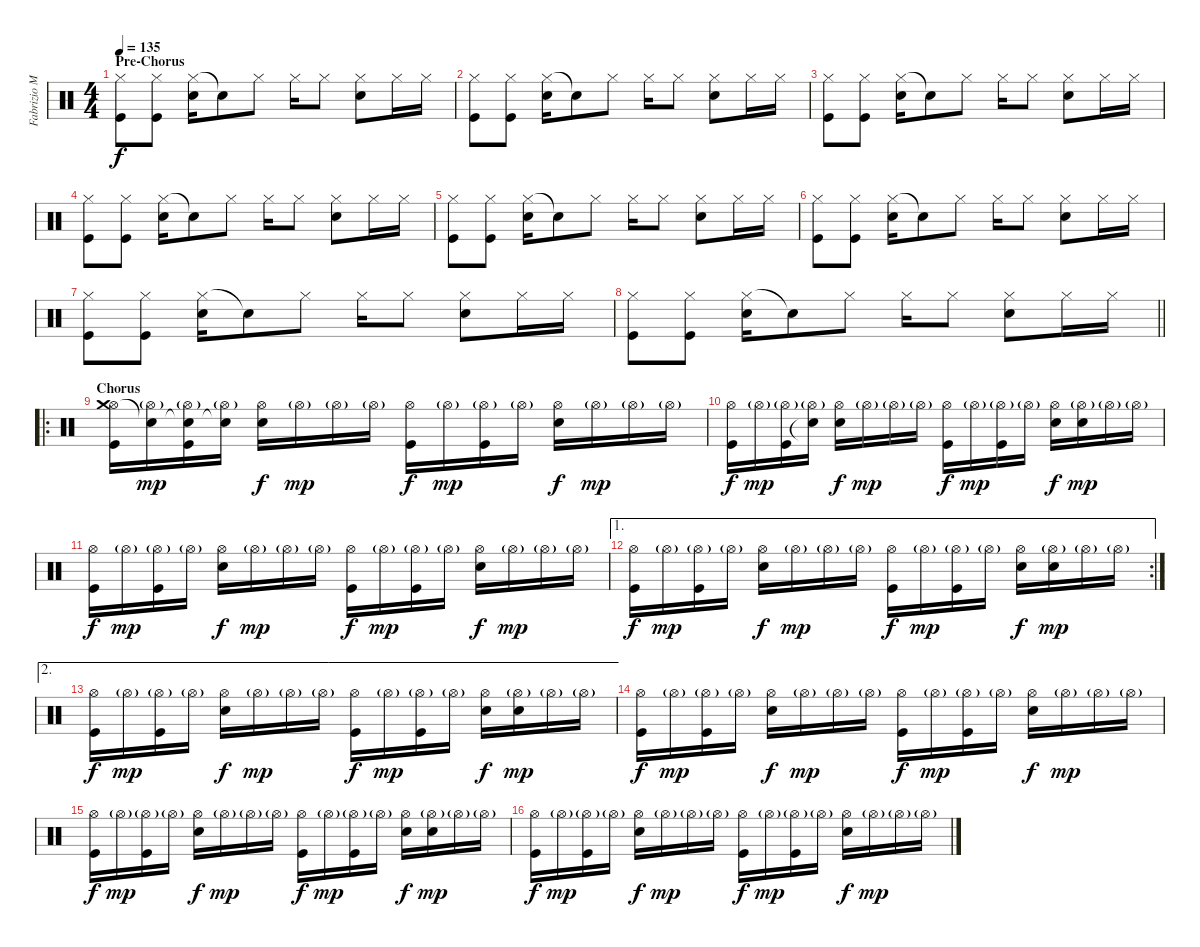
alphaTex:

\track ("Fabrizio Moretti" "Fabrizio M") {instrument percussion}
\staff {score}
\articulation defaults
\ts (4 4)
\section ("" "Pre-Chorus")
\tempo 135
\clef neutral
\ks c
("Hi-Hat (closed)" "Kick (hit)").8{dy f} ("Hi-Hat (closed)" "Kick (hit)").8 ("Hi-Hat (closed)" "Electric Snare (hit)").16 "Snare (hit)"{t}.8 "Hi-Hat (closed)".8 "Hi-Hat (closed)".16 "Hi-Hat (closed)".8 ("Hi-Hat (closed)" "Electric Snare (hit)").8 "Hi-Hat (closed)".16 "Hi-Hat (closed)".16 |
("Hi-Hat (closed)" "Kick (hit)").8 ("Hi-Hat (closed)" "Kick (hit)").8 ("Hi-Hat (closed)" "Electric Snare (hit)").16 "Snare (hit)"{t}.8 "Hi-Hat (closed)".8 "Hi-Hat (closed)".16 "Hi-Hat (closed)".8 ("Hi-Hat (closed)" "Electric Snare (hit)").8 "Hi-Hat (closed)".16 "Hi-Hat (closed)".16 |
("Hi-Hat (closed)" "Kick (hit)").8 ("Hi-Hat (closed)" "Kick (hit)").8 ("Hi-Hat (closed)" "Electric Snare (hit)").16 "Snare (hit)"{t}.8 "Hi-Hat (closed)".8 "Hi-Hat (closed)".16 "Hi-Hat (closed)".8 ("Hi-Hat (closed)" "Electric Snare (hit)").8 "Hi-Hat (closed)".16 "Hi-Hat (closed)".16 |
("Hi-Hat (closed)" "Kick (hit)").8 ("Hi-Hat (closed)" "Kick (hit)").8 ("Hi-Hat (closed)" "Electric Snare (hit)").16 "Snare (hit)"{t}.8 "Hi-Hat (closed)".8 "Hi-Hat (closed)".16 "Hi-Hat (closed)".8 ("Hi-Hat (closed)" "Electric Snare (hit)").8 "Hi-Hat (closed)".16 "Hi-Hat (closed)".16 |
("Hi-Hat (closed)" "Kick (hit)").8 ("Hi-Hat (closed)" "Kick (hit)").8 ("Hi-Hat (closed)" "Electric Snare (hit)").16 "Snare (hit)"{t}.8 "Hi-Hat (closed)".8 "Hi-Hat (closed)".16 "Hi-Hat (closed)".8 ("Hi-Hat (closed)" "Electric Snare (hit)").8 "Hi-Hat (closed)".16 "Hi-Hat (closed)".16 |
("Hi-Hat (closed)" "Kick (hit)").8 ("Hi-Hat (closed)" "Kick (hit)").8 ("Hi-Hat (closed)" "Electric Snare (hit)").16 "Snare (hit)"{t}.8 "Hi-Hat (closed)".8 "Hi-Hat (closed)".16 "Hi-Hat (closed)".8 ("Hi-Hat (closed)" "Electric Snare (hit)").8 "Hi-Hat (closed)".16 "Hi-Hat (closed)".16 |
("Hi-Hat (closed)" "Kick (hit)").8 ("Hi-Hat (closed)" "Kick (hit)").8 ("Hi-Hat (closed)" "Electric Snare (hit)").16 "Snare (hit)"{t}.8 "Hi-Hat (closed)".8 "Hi-Hat (closed)".16 "Hi-Hat (closed)".8 ("Hi-Hat (closed)" "Electric Snare (hit)").8 "Hi-Hat (closed)".16 "Hi-Hat (closed)".16 |
\barLineRight lightlight
("Hi-Hat (closed)" "Kick (hit)").8 ("Hi-Hat (closed)" "Kick (hit)").8 ("Hi-Hat (closed)" "Electric Snare (hit)").16 "Snare (hit)"{t}.8 "Hi-Hat (closed)".8 "Hi-Hat (closed)".16 "Hi-Hat (closed)".8 ("Hi-Hat (closed)" "Electric Snare (hit)").8 "Hi-Hat (closed)".16 "Hi-Hat (closed)".16 |
\ro
\section ("" "Chorus")
("Hi-Hat (open)" "Crash medium (hit)" "Kick (hit)").16 ("Hi-Hat (open)"{g} "Snare (hit)"{t}).16{dy mp} ("Hi-Hat (open)"{g} "Snare (hit)"{t} "Kick (hit)").16 ("Hi-Hat (open)"{g} "Snare (hit)"{t}).16 ("Hi-Hat (open)" "Electric Snare (hit)").16{dy f} "Hi-Hat (open)"{g}.16{dy mp} "Hi-Hat (open)"{g}.16 "Hi-Hat (open)"{g}.16 ("Hi-Hat (open)" "Kick (hit)").16{dy f} "Hi-Hat (open)"{g}.16{dy mp} ("Hi-Hat (open)"{g} "Kick (hit)").16 "Hi-Hat (open)"{g}.16 ("Hi-Hat (open)" "Electric Snare (hit)").16{dy f} "Hi-Hat (open)"{g}.16{dy mp} "Hi-Hat (open)"{g}.16 "Hi-Hat (open)"{g}.16 |
("Hi-Hat (open)" "Kick (hit)").16{dy f} "Hi-Hat (open)"{g}.16{dy mp} ("Hi-Hat (open)"{g} "Kick (hit)").16 ("Hi-Hat (open)"{g} "Snare (hit)"{t}).16 ("Hi-Hat (open)" "Electric Snare (hit)").16{dy f} "Hi-Hat (open)"{g}.16{dy mp} "Hi-Hat (open)"{g}.16 "Hi-Hat (open)"{g}.16 ("Hi-Hat (open)" "Kick (hit)").16{dy f} "Hi-Hat (open)"{g}.16{dy mp} ("Hi-Hat (open)"{g} "Kick (hit)").16 "Hi-Hat (open)"{g}.16 ("Hi-Hat (open)" "Electric Snare (hit)").16{dy f} ("Hi-Hat (open)"{g} "Electric Snare (hit)").16{dy mp} "Hi-Hat (open)"{g}.16 "Hi-Hat (open)"{g}.16 |
("Hi-Hat (open)" "Kick (hit)").16{dy f} "Hi-Hat (open)"{g}.16{dy mp} ("Hi-Hat (open)"{g} "Kick (hit)").16 "Hi-Hat (open)"{g}.16 ("Hi-Hat (open)" "Electric Snare (hit)").16{dy f} "Hi-Hat (open)"{g}.16{dy mp} "Hi-Hat (open)"{g}.16 "Hi-Hat (open)"{g}.16 ("Hi-Hat (open)" "Kick (hit)").16{dy f} "Hi-Hat (open)"{g}.16{dy mp} ("Hi-Hat (open)"{g} "Kick (hit)").16 "Hi-Hat (open)"{g}.16 ("Hi-Hat (open)" "Electric Snare (hit)").16{dy f} "Hi-Hat (open)"{g}.16{dy mp} "Hi-Hat (open)"{g}.16 "Hi-Hat (open)"{g}.16 |
\ae 1
\rc 2
("Hi-Hat (open)" "Kick (hit)").16{dy f} "Hi-Hat (open)"{g}.16{dy mp} ("Hi-Hat (open)"{g} "Kick (hit)").16 "Hi-Hat (open)"{g}.16 ("Hi-Hat (open)" "Electric Snare (hit)").16{dy f} "Hi-Hat (open)"{g}.16{dy mp} "Hi-Hat (open)"{g}.16 "Hi-Hat (open)"{g}.16 ("Hi-Hat (open)" "Kick (hit)").16{dy f} "Hi-Hat (open)"{g}.16{dy mp} ("Hi-Hat (open)"{g} "Kick (hit)").16 "Hi-Hat (open)"{g}.16 ("Hi-Hat (open)" "Electric Snare (hit)").16{dy f} ("Hi-Hat (open)"{g} "Electric Snare (hit)").16{dy mp} "Hi-Hat (open)"{g}.16 "Hi-Hat (open)"{g}.16 |
\ae 2
("Hi-Hat (open)" "Kick (hit)").16{dy f} "Hi-Hat (open)"{g}.16{dy mp} ("Hi-Hat (open)"{g} "Kick (hit)").16 "Hi-Hat (open)"{g}.16 ("Hi-Hat (open)" "Electric Snare (hit)").16{dy f} "Hi-Hat (open)"{g}.16{dy mp} "Hi-Hat (open)"{g}.16 "Hi-Hat (open)"{g}.16 ("Hi-Hat (open)" "Kick (hit)").16{dy f} "Hi-Hat (open)"{g}.16{dy mp} ("Hi-Hat (open)"{g} "Kick (hit)").16 "Hi-Hat (open)"{g}.16 ("Hi-Hat (open)" "Electric Snare (hit)").16{dy f} ("Hi-Hat (open)"{g} "Electric Snare (hit)").16{dy mp} "Hi-Hat (open)"{g}.16 "Hi-Hat (open)"{g}.16 |
("Hi-Hat (open)" "Kick (hit)").16{dy f} "Hi-Hat (open)"{g}.16{dy mp} ("Hi-Hat (open)"{g} "Kick (hit)").16 "Hi-Hat (open)"{g}.16 ("Hi-Hat (open)" "Electric Snare (hit)").16{dy f} "Hi-Hat (open)"{g}.16{dy mp} "Hi-Hat (open)"{g}.16 "Hi-Hat (open)"{g}.16 ("Hi-Hat (open)" "Kick (hit)").16{dy f} "Hi-Hat (open)"{g}.16{dy mp} ("Hi-Hat (open)"{g} "Kick (hit)").16 "Hi-Hat (open)"{g}.16 ("Hi-Hat (open)" "Electric Snare (hit)").16{dy f} "Hi-Hat (open)"{g}.16{dy mp} "Hi-Hat (open)"{g}.16 "Hi-Hat (open)"{g}.16 |
("Hi-Hat (open)" "Kick (hit)").16{dy f} "Hi-Hat (open)"{g}.16{dy mp} ("Hi-Hat (open)"{g} "Kick (hit)").16 "Hi-Hat (open)"{g}.16 ("Hi-Hat (open)" "Electric Snare (hit)").16{dy f} "Hi-Hat (open)"{g}.16{dy mp} "Hi-Hat (open)"{g}.16 "Hi-Hat (open)"{g}.16 ("Hi-Hat (open)" "Kick (hit)").16{dy f} "Hi-Hat (open)"{g}.16{dy mp} ("Hi-Hat (open)"{g} "Kick (hit)").16 "Hi-Hat (open)"{g}.16 ("Hi-Hat (open)" "Electric Snare (hit)").16{dy f} ("Hi-Hat (open)"{g} "Electric Snare (hit)").16{dy mp} "Hi-Hat (open)"{g}.16 "Hi-Hat (open)"{g}.16 |
("Hi-Hat (open)" "Kick (hit)").16{dy f} "Hi-Hat (open)"{g}.16{dy mp} ("Hi-Hat (open)"{g} "Kick (hit)").16 "Hi-Hat (open)"{g}.16 ("Hi-Hat (open)" "Electric Snare (hit)").16{dy f} "Hi-Hat (open)"{g}.16{dy mp} "Hi-Hat (open)"{g}.16 "Hi-Hat (open)"{g}.16 ("Hi-Hat (open)" "Kick (hit)").16{dy f} "Hi-Hat (open)"{g}.16{dy mp} ("Hi-Hat (open)"{g} "Kick (hit)").16 "Hi-Hat (open)"{g}.16 ("Hi-Hat (open)" "Electric Snare (hit)").16{dy f} "Hi-Hat (open)"{g}.16{dy mp} "Hi-Hat (open)"{g}.16 "Hi-Hat (open)"{g}.16
